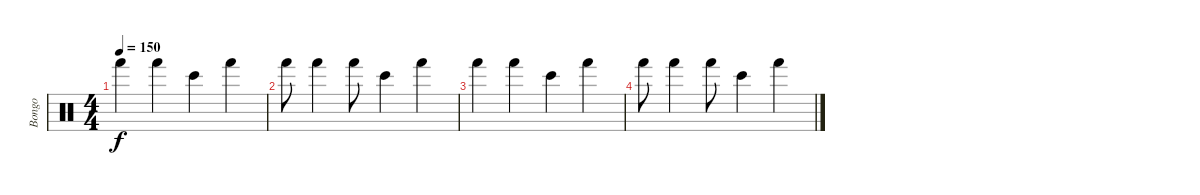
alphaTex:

\track ("Bongo" "Bongo") {instrument percussion}
\staff {score}
\articulation defaults
\ts (4 4)
\tempo 150
\clef neutral
\ks c "Hand (hit)".4{dy f} "Hand (hit)".4 "Bongo High (hit)".4 "Hand (hit)".4
|
"Hand (hit)".8 "Hand (hit)".4 "Hand (hit)".8 "Bongo High (hit)".4 "Hand (hit)".4 |
"Hand (hit)".4 "Hand (hit)".4 "Bongo High (hit)".4 "Hand (hit)".4 |
"Hand (hit)".8 "Hand (hit)".4 "Hand (hit)".8 "Bongo High (hit)".4 "Hand (hit)".4
